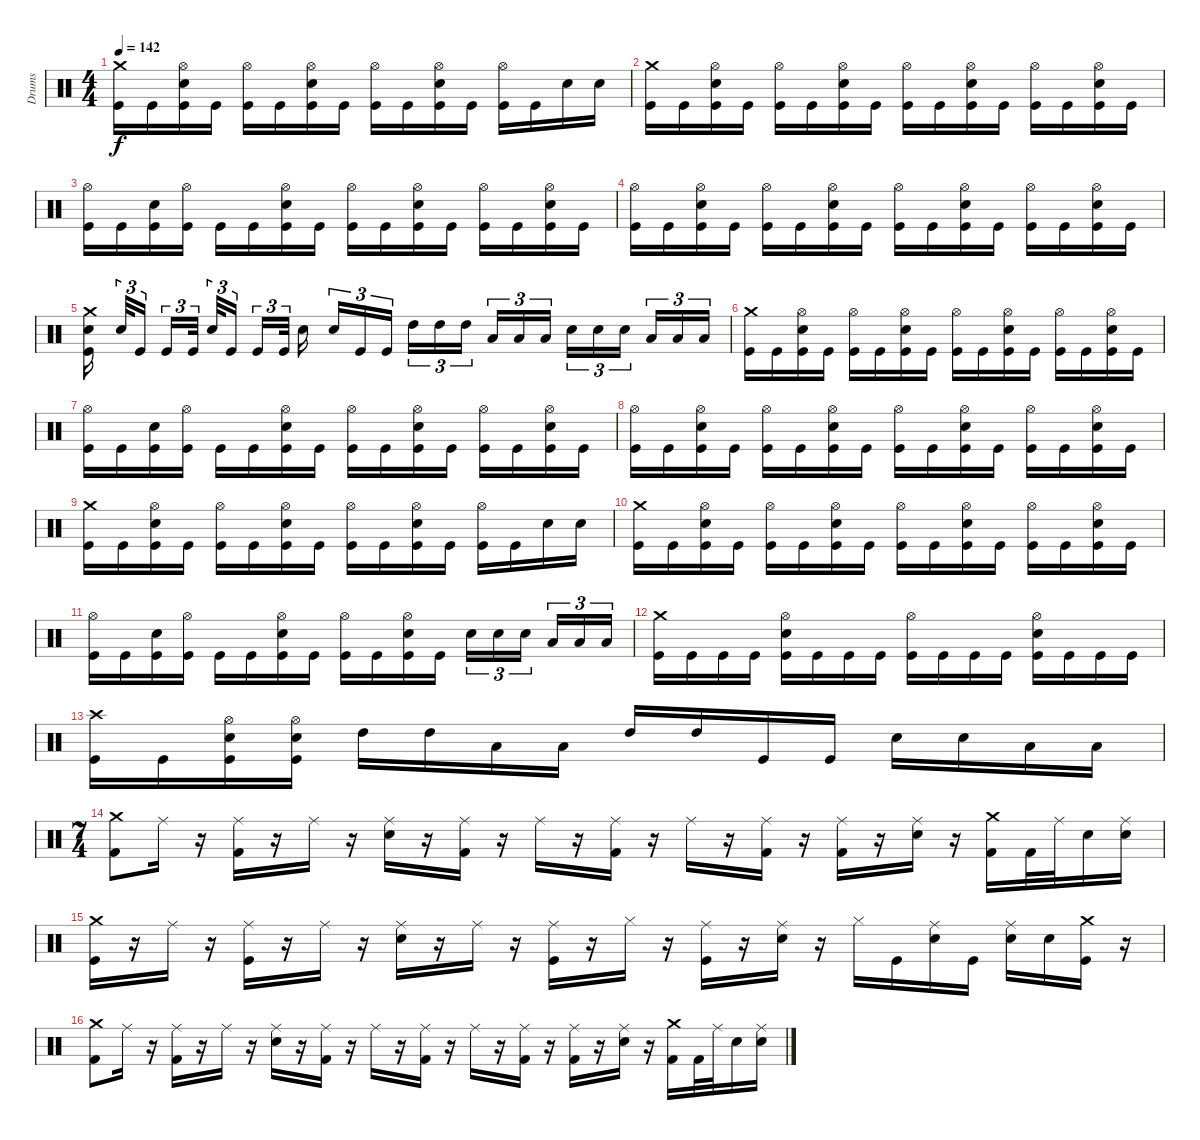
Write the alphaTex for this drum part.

\track ("Drums" "Drums") {instrument percussion}
\staff {score}
\articulation defaults
\ts (4 4)
\tempo 142
\clef neutral
\ks c
("Crash medium (hit)" "Kick (hit)").16{dy f} "Kick (hit)".16 ("Electric Snare (hit)" "Hi-Hat (open)" "Kick (hit)").16 "Kick (hit)".16 ("Hi-Hat (open)" "Kick (hit)").16 "Kick (hit)".16 ("Electric Snare (hit)" "Hi-Hat (open)" "Kick (hit)").16 "Kick (hit)".16 ("Hi-Hat (open)" "Kick (hit)").16 "Kick (hit)".16 ("Electric Snare (hit)" "Hi-Hat (open)" "Kick (hit)").16 "Kick (hit)".16 ("Hi-Hat (open)" "Kick (hit)").16 "Kick (hit)".16 "Electric Snare (hit)".16 "Electric Snare (hit)".16 |
("Crash medium (hit)" "Kick (hit)").16 "Kick (hit)".16 ("Electric Snare (hit)" "Hi-Hat (open)" "Kick (hit)").16 "Kick (hit)".16 ("Hi-Hat (open)" "Kick (hit)").16 "Kick (hit)".16 ("Electric Snare (hit)" "Hi-Hat (open)" "Kick (hit)").16 "Kick (hit)".16 ("Hi-Hat (open)" "Kick (hit)").16 "Kick (hit)".16 ("Electric Snare (hit)" "Hi-Hat (open)" "Kick (hit)").16 "Kick (hit)".16 ("Hi-Hat (open)" "Kick (hit)").16 "Kick (hit)".16 ("Electric Snare (hit)" "Hi-Hat (open)" "Kick (hit)").16 "Kick (hit)".16 |
("Hi-Hat (open)" "Kick (hit)").16 "Kick (hit)".16 ("Electric Snare (hit)" "Kick (hit)").16 ("Hi-Hat (open)" "Kick (hit)").16 "Kick (hit)".16 "Kick (hit)".16 ("Electric Snare (hit)" "Hi-Hat (open)" "Kick (hit)").16 "Kick (hit)".16 ("Hi-Hat (open)" "Kick (hit)").16 "Kick (hit)".16 ("Electric Snare (hit)" "Hi-Hat (open)" "Kick (hit)").16 "Kick (hit)".16 ("Hi-Hat (open)" "Kick (hit)").16 "Kick (hit)".16 ("Electric Snare (hit)" "Hi-Hat (open)" "Kick (hit)").16 "Kick (hit)".16 |
("Hi-Hat (open)" "Kick (hit)").16 "Kick (hit)".16 ("Electric Snare (hit)" "Hi-Hat (open)" "Kick (hit)").16 "Kick (hit)".16 ("Hi-Hat (open)" "Kick (hit)").16 "Kick (hit)".16 ("Electric Snare (hit)" "Hi-Hat (open)" "Kick (hit)").16 "Kick (hit)".16 ("Hi-Hat (open)" "Kick (hit)").16 "Kick (hit)".16 ("Electric Snare (hit)" "Hi-Hat (open)" "Kick (hit)").16 "Kick (hit)".16 ("Hi-Hat (open)" "Kick (hit)").16 "Kick (hit)".16 ("Electric Snare (hit)" "Hi-Hat (open)" "Kick (hit)").16 "Kick (hit)".16 |
("Kick (hit)" "Crash medium (hit)" "Electric Snare (hit)").16 "Electric Snare (hit)".32{tu (3 2)} "Kick (hit)".16{tu (3 2)} "Kick (hit)".16{tu (3 2)} "Kick (hit)".32{tu (3 2)} "Electric Snare (hit)".32{tu (3 2)} "Kick (hit)".16{tu (3 2)} "Kick (hit)".16{tu (3 2)} "Kick (hit)".32{tu (3 2)} "Electric Snare (hit)".16 "Electric Snare (hit)".16{tu (3 2)} "Kick (hit)".16{tu (3 2)} "Kick (hit)".16{tu (3 2)} "High Tom (hit)".16{tu (3 2)} "High Tom (hit)".16{tu (3 2)} "High Tom (hit)".16{tu (3 2)} "Low Tom (hit)".16{tu (3 2)} "Low Tom (hit)".16{tu (3 2)} "Low Tom (hit)".16{tu (3 2)} "Electric Snare (hit)".16{tu (3 2)} "Electric Snare (hit)".16{tu (3 2)} "Electric Snare (hit)".16{tu (3 2)} "Low Tom (hit)".16{tu (3 2)} "Low Tom (hit)".16{tu (3 2)} "Low Tom (hit)".16{tu (3 2)} |
("Crash medium (hit)" "Kick (hit)").16 "Kick (hit)".16 ("Electric Snare (hit)" "Hi-Hat (open)" "Kick (hit)").16 "Kick (hit)".16 ("Hi-Hat (open)" "Kick (hit)").16 "Kick (hit)".16 ("Electric Snare (hit)" "Hi-Hat (open)" "Kick (hit)").16 "Kick (hit)".16 ("Hi-Hat (open)" "Kick (hit)").16 "Kick (hit)".16 ("Electric Snare (hit)" "Hi-Hat (open)" "Kick (hit)").16 "Kick (hit)".16 ("Hi-Hat (open)" "Kick (hit)").16 "Kick (hit)".16 ("Electric Snare (hit)" "Hi-Hat (open)" "Kick (hit)").16 "Kick (hit)".16 |
("Hi-Hat (open)" "Kick (hit)").16 "Kick (hit)".16 ("Electric Snare (hit)" "Kick (hit)").16 ("Hi-Hat (open)" "Kick (hit)").16 "Kick (hit)".16 "Kick (hit)".16 ("Electric Snare (hit)" "Hi-Hat (open)" "Kick (hit)").16 "Kick (hit)".16 ("Hi-Hat (open)" "Kick (hit)").16 "Kick (hit)".16 ("Electric Snare (hit)" "Hi-Hat (open)" "Kick (hit)").16 "Kick (hit)".16 ("Hi-Hat (open)" "Kick (hit)").16 "Kick (hit)".16 ("Electric Snare (hit)" "Hi-Hat (open)" "Kick (hit)").16 "Kick (hit)".16 |
("Hi-Hat (open)" "Kick (hit)").16 "Kick (hit)".16 ("Electric Snare (hit)" "Hi-Hat (open)" "Kick (hit)").16 "Kick (hit)".16 ("Hi-Hat (open)" "Kick (hit)").16 "Kick (hit)".16 ("Electric Snare (hit)" "Hi-Hat (open)" "Kick (hit)").16 "Kick (hit)".16 ("Hi-Hat (open)" "Kick (hit)").16 "Kick (hit)".16 ("Electric Snare (hit)" "Hi-Hat (open)" "Kick (hit)").16 "Kick (hit)".16 ("Hi-Hat (open)" "Kick (hit)").16 "Kick (hit)".16 ("Electric Snare (hit)" "Hi-Hat (open)" "Kick (hit)").16 "Kick (hit)".16 |
("Crash medium (hit)" "Kick (hit)").16 "Kick (hit)".16 ("Electric Snare (hit)" "Hi-Hat (open)" "Kick (hit)").16 "Kick (hit)".16 ("Hi-Hat (open)" "Kick (hit)").16 "Kick (hit)".16 ("Electric Snare (hit)" "Hi-Hat (open)" "Kick (hit)").16 "Kick (hit)".16 ("Hi-Hat (open)" "Kick (hit)").16 "Kick (hit)".16 ("Electric Snare (hit)" "Hi-Hat (open)" "Kick (hit)").16 "Kick (hit)".16 ("Hi-Hat (open)" "Kick (hit)").16 "Kick (hit)".16 "Electric Snare (hit)".16 "Electric Snare (hit)".16 |
("Crash medium (hit)" "Kick (hit)").16 "Kick (hit)".16 ("Electric Snare (hit)" "Hi-Hat (open)" "Kick (hit)").16 "Kick (hit)".16 ("Hi-Hat (open)" "Kick (hit)").16 "Kick (hit)".16 ("Electric Snare (hit)" "Hi-Hat (open)" "Kick (hit)").16 "Kick (hit)".16 ("Hi-Hat (open)" "Kick (hit)").16 "Kick (hit)".16 ("Electric Snare (hit)" "Hi-Hat (open)" "Kick (hit)").16 "Kick (hit)".16 ("Hi-Hat (open)" "Kick (hit)").16 "Kick (hit)".16 ("Electric Snare (hit)" "Hi-Hat (open)" "Kick (hit)").16 "Kick (hit)".16 |
("Hi-Hat (open)" "Kick (hit)").16 "Kick (hit)".16 ("Electric Snare (hit)" "Kick (hit)").16 ("Hi-Hat (open)" "Kick (hit)").16 "Kick (hit)".16 "Kick (hit)".16 ("Electric Snare (hit)" "Hi-Hat (open)" "Kick (hit)").16 "Kick (hit)".16 ("Hi-Hat (open)" "Kick (hit)").16 "Kick (hit)".16 ("Electric Snare (hit)" "Hi-Hat (open)" "Kick (hit)").16 "Kick (hit)".16 "Electric Snare (hit)".16{tu (3 2)} "Electric Snare (hit)".16{tu (3 2)} "Electric Snare (hit)".16{tu (3 2)} "Low Tom (hit)".16{tu (3 2)} "Low Tom (hit)".16{tu (3 2)} "Low Tom (hit)".16{tu (3 2)} |
("Crash medium (hit)" "Kick (hit)").16 "Kick (hit)".16 "Kick (hit)".16 "Kick (hit)".16 ("Electric Snare (hit)" "Hi-Hat (open)" "Kick (hit)").16 "Kick (hit)".16 "Kick (hit)".16 "Kick (hit)".16 ("Hi-Hat (open)" "Kick (hit)").16 "Kick (hit)".16 "Kick (hit)".16 "Kick (hit)".16 ("Electric Snare (hit)" "Hi-Hat (open)" "Kick (hit)").16 "Kick (hit)".16 "Kick (hit)".16 "Kick (hit)".16 |
("Crash high (hit)" "Kick (hit)").16 "Kick (hit)".16 ("Hi-Hat (open)" "Electric Snare (hit)" "Kick (hit)").16 ("Hi-Hat (open)" "Electric Snare (hit)" "Kick (hit)").16 "High Tom (hit)".16 "High Tom (hit)".16 "Low Tom (hit)".16 "Low Tom (hit)".16 "High Tom (hit)".16 "High Tom (hit)".16 "Kick (hit)".16 "Kick (hit)".16 "Electric Snare (hit)".16 "Electric Snare (hit)".16 "Low Tom (hit)".16 "Low Tom (hit)".16 |
\ts (7 4)
("Crash medium (hit)" "Kick (hit) 2").8 "Ride (middle)".16 r.16 ("Kick (hit) 2" "Ride (middle)").16 r.16 "Ride (middle)".16 r.16 ("Ride (middle)" "Electric Snare (hit)").16 r.16 ("Ride (middle)" "Kick (hit) 2").16 r.16 "Ride (middle)".16 r.16 ("Ride (middle)" "Kick (hit) 2").16 r.16 "Ride (middle)".16 r.16 ("Ride (middle)" "Kick (hit) 2").16 r.16 ("Ride (middle)" "Kick (hit) 2").16 r.16 ("Ride (middle)" "Electric Snare (hit)").16 r.16 ("Crash medium (hit)" "Kick (hit) 2").16 "Kick (hit) 2".32 "Ride (middle)".32 "Electric Snare (hit)".16 ("Ride (middle)" "Electric Snare (hit)").16 |
("Crash medium (hit)" "Kick (hit)").16 r.16 "Ride (middle)".16 r.16 ("Ride (middle)" "Kick (hit)").16 r.16 "Ride (middle)".16 r.16 ("Ride (middle)" "Electric Snare (hit)").16 r.16 "Ride (middle)".16 r.16 ("Ride (middle)" "Kick (hit)").16 r.16 "Hi-Hat (closed)".16 r.16 ("Ride (middle)" "Kick (hit)").16 r.16 ("Ride (middle)" "Electric Snare (hit)").16 r.16 "Hi-Hat (closed)".16 "Kick (hit)".16 ("Ride (middle)" "Electric Snare (hit)").16 "Kick (hit)".16 ("Ride (middle)" "Electric Snare (hit)").16 "Electric Snare (hit)".16 ("Crash medium (hit)" "Kick (hit)").16 r.16 |
("Crash medium (hit)" "Kick (hit) 2").8 "Ride (middle)".16 r.16 ("Kick (hit) 2" "Ride (middle)").16 r.16 "Ride (middle)".16 r.16 ("Ride (middle)" "Electric Snare (hit)").16 r.16 ("Ride (middle)" "Kick (hit) 2").16 r.16 "Ride (middle)".16 r.16 ("Ride (middle)" "Kick (hit) 2").16 r.16 "Ride (middle)".16 r.16 ("Ride (middle)" "Kick (hit) 2").16 r.16 ("Ride (middle)" "Kick (hit) 2").16 r.16 ("Ride (middle)" "Electric Snare (hit)").16 r.16 ("Crash medium (hit)" "Kick (hit) 2").16 "Kick (hit) 2".32 "Ride (middle)".32 "Electric Snare (hit)".16 ("Ride (middle)" "Electric Snare (hit)").16
